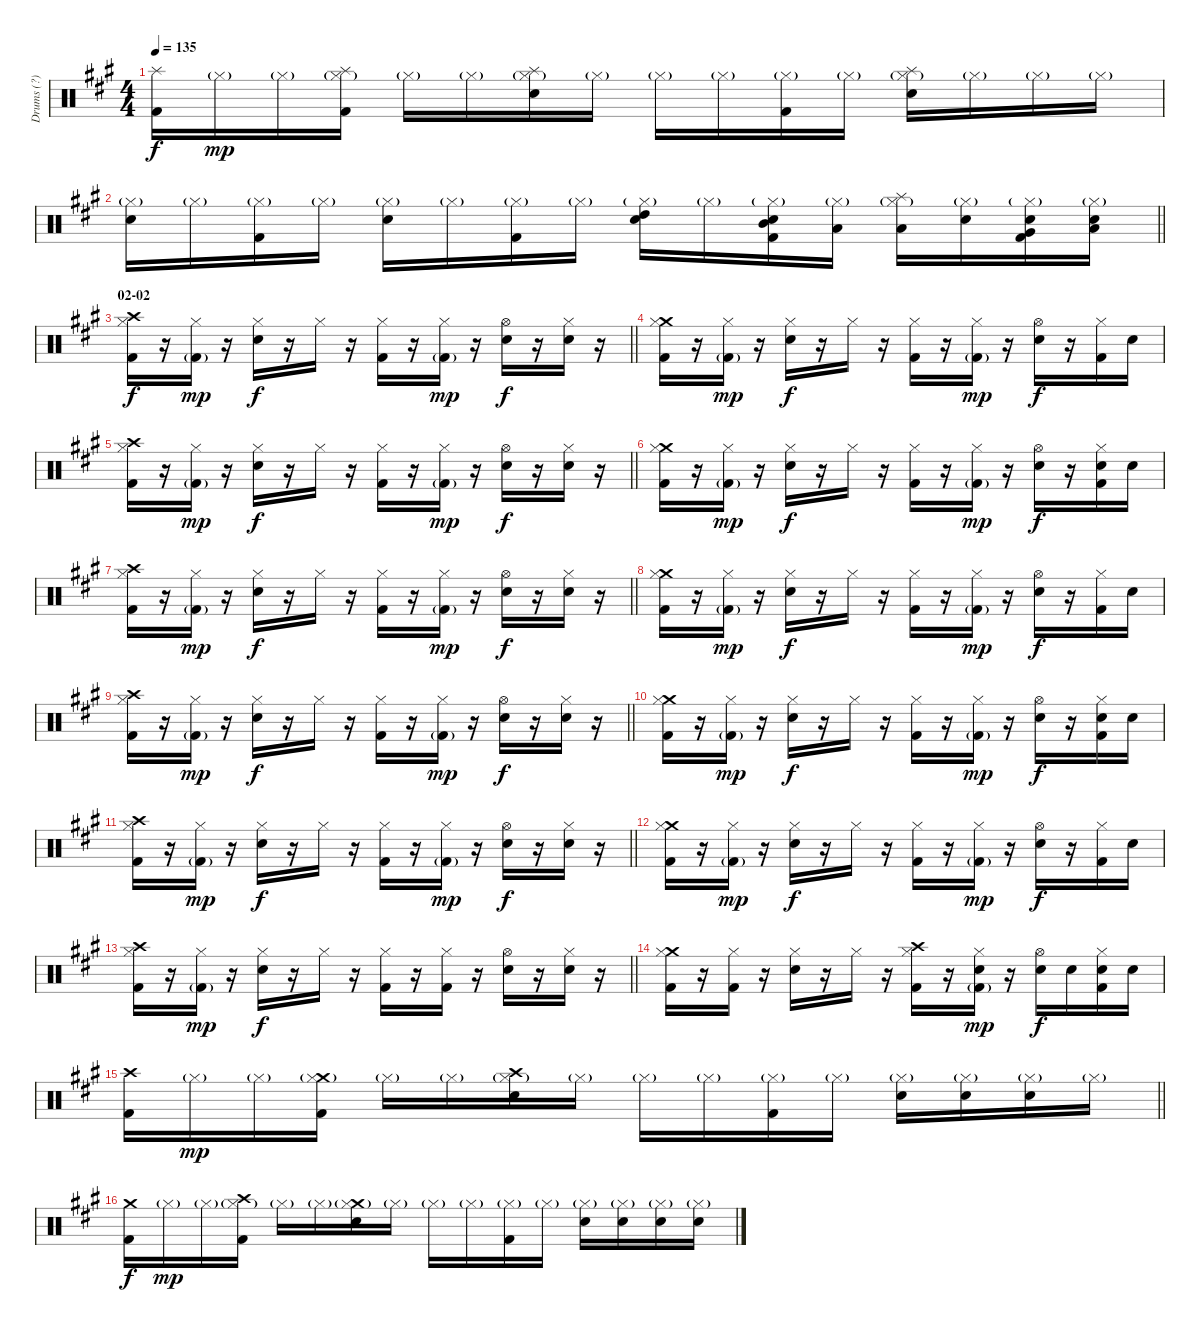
\track ("Drums (?)" "Drums (?)") {instrument percussion}
\staff {score}
\articulation defaults
\ts (4 4)
\tempo 135
\clef neutral
\ks a
("Splash (hit)" "Kick (hit) 2").16{dy f} "Hi-Hat (closed)"{g}.16{dy mp} "Hi-Hat (closed)"{g}.16 ("Splash (hit)" "Hi-Hat (closed)"{g} "Kick (hit) 2").16 "Hi-Hat (closed)"{g}.16 "Hi-Hat (closed)"{g}.16 ("Splash (hit)" "Hi-Hat (closed)"{g} "Electric Snare (hit)").16 "Hi-Hat (closed)"{g}.16 "Hi-Hat (closed)"{g}.16 "Hi-Hat (closed)"{g}.16 ("Hi-Hat (closed)"{g} "Kick (hit) 2").16 "Hi-Hat (closed)"{g}.16 ("Splash (hit)" "Hi-Hat (closed)"{g} "Electric Snare (hit)").16 "Hi-Hat (closed)"{g}.16 "Hi-Hat (closed)"{g}.16 "Hi-Hat (closed)"{g}.16 |
\barLineRight lightlight
("Hi-Hat (closed)"{g} "Electric Snare (hit)").16 "Hi-Hat (closed)"{g}.16 ("Hi-Hat (closed)"{g} "Kick (hit) 2").16 "Hi-Hat (closed)"{g}.16 ("Hi-Hat (closed)"{g} "Electric Snare (hit)").16 "Hi-Hat (closed)"{g}.16 ("Hi-Hat (closed)"{g} "Kick (hit) 2").16 "Hi-Hat (closed)"{g}.16 ("Hi-Hat (closed)"{g} "High Tom (hit)" "Electric Snare (hit)").16 "Hi-Hat (closed)"{g}.16 ("Hi-Hat (closed)"{g} "Mid Tom (hit)" "Electric Snare (hit)" "Kick (hit) 2").16 ("Hi-Hat (closed)"{g} "Low Tom (hit)").16 ("Splash (hit)" "Hi-Hat (closed)"{g} "Low Tom (hit)").16 ("Hi-Hat (closed)"{g} "Electric Snare (hit)").16 ("Hi-Hat (closed)"{g} "Very Low Tom (hit)" "Electric Snare (hit)" "Kick (hit) 2").16 ("Hi-Hat (closed)"{g} "Low Floor Tom (hit)" "Electric Snare (hit)").16 |
\section ("" "02-02")
\barLineRight lightlight
("Crash high (hit)" "Hi-Hat (closed)" "Kick (hit) 2").16{dy f} r.16 ("Hi-Hat (closed)" "Kick (hit) 2"{g}).16{dy mp} r.16 ("Hi-Hat (closed)" "Electric Snare (hit)").16{dy f} r.16 "Hi-Hat (closed)".16 r.16 ("Hi-Hat (closed)" "Kick (hit) 2").16 r.16 ("Hi-Hat (closed)" "Kick (hit) 2"{g}).16{dy mp} r.16 ("Hi-Hat (open)" "Electric Snare (hit)").16{dy f} r.16 ("Hi-Hat (closed)" "Hand Clap (hit)").16 r.16 |
("Crash medium (hit)" "Hi-Hat (closed)" "Kick (hit) 2").16 r.16 ("Hi-Hat (closed)" "Kick (hit) 2"{g}).16{dy mp} r.16 ("Hi-Hat (closed)" "Electric Snare (hit)").16{dy f} r.16 "Hi-Hat (closed)".16 r.16 ("Hi-Hat (closed)" "Kick (hit) 2").16 r.16 ("Hi-Hat (closed)" "Kick (hit) 2"{g}).16{dy mp} r.16 ("Hi-Hat (open)" "Electric Snare (hit)").16{dy f} r.16 ("Hi-Hat (closed)" "Kick (hit) 2").16 "Hand Clap (hit)".16 |
\barLineRight lightlight
("Crash high (hit)" "Hi-Hat (closed)" "Kick (hit) 2").16 r.16 ("Hi-Hat (closed)" "Kick (hit) 2"{g}).16{dy mp} r.16 ("Hi-Hat (closed)" "Electric Snare (hit)").16{dy f} r.16 "Hi-Hat (closed)".16 r.16 ("Hi-Hat (closed)" "Kick (hit) 2").16 r.16 ("Hi-Hat (closed)" "Kick (hit) 2"{g}).16{dy mp} r.16 ("Hi-Hat (open)" "Electric Snare (hit)").16{dy f} r.16 ("Hi-Hat (closed)" "Hand Clap (hit)").16 r.16 |
("Crash medium (hit)" "Hi-Hat (closed)" "Kick (hit) 2").16 r.16 ("Hi-Hat (closed)" "Kick (hit) 2"{g}).16{dy mp} r.16 ("Hi-Hat (closed)" "Electric Snare (hit)").16{dy f} r.16 "Hi-Hat (closed)".16 r.16 ("Hi-Hat (closed)" "Kick (hit) 2").16 r.16 ("Hi-Hat (closed)" "Kick (hit) 2"{g}).16{dy mp} r.16 ("Hi-Hat (open)" "Electric Snare (hit)").16{dy f} r.16 ("Hi-Hat (closed)" "Electric Snare (hit)" "Kick (hit) 2").16 "Electric Snare (hit)".16 |
\barLineRight lightlight
("Crash high (hit)" "Hi-Hat (closed)" "Kick (hit) 2").16 r.16 ("Hi-Hat (closed)" "Kick (hit) 2"{g}).16{dy mp} r.16 ("Hi-Hat (closed)" "Electric Snare (hit)").16{dy f} r.16 "Hi-Hat (closed)".16 r.16 ("Hi-Hat (closed)" "Kick (hit) 2").16 r.16 ("Hi-Hat (closed)" "Kick (hit) 2"{g}).16{dy mp} r.16 ("Hi-Hat (open)" "Electric Snare (hit)").16{dy f} r.16 ("Hi-Hat (closed)" "Hand Clap (hit)").16 r.16 |
("Crash medium (hit)" "Hi-Hat (closed)" "Kick (hit) 2").16 r.16 ("Hi-Hat (closed)" "Kick (hit) 2"{g}).16{dy mp} r.16 ("Hi-Hat (closed)" "Electric Snare (hit)").16{dy f} r.16 "Hi-Hat (closed)".16 r.16 ("Hi-Hat (closed)" "Kick (hit) 2").16 r.16 ("Hi-Hat (closed)" "Kick (hit) 2"{g}).16{dy mp} r.16 ("Hi-Hat (open)" "Electric Snare (hit)").16{dy f} r.16 ("Hi-Hat (closed)" "Kick (hit) 2").16 "Hand Clap (hit)".16 |
\barLineRight lightlight
("Crash high (hit)" "Hi-Hat (closed)" "Kick (hit) 2").16 r.16 ("Hi-Hat (closed)" "Kick (hit) 2"{g}).16{dy mp} r.16 ("Hi-Hat (closed)" "Electric Snare (hit)").16{dy f} r.16 "Hi-Hat (closed)".16 r.16 ("Hi-Hat (closed)" "Kick (hit) 2").16 r.16 ("Hi-Hat (closed)" "Kick (hit) 2"{g}).16{dy mp} r.16 ("Hi-Hat (open)" "Electric Snare (hit)").16{dy f} r.16 ("Hi-Hat (closed)" "Hand Clap (hit)").16 r.16 |
("Crash medium (hit)" "Hi-Hat (closed)" "Kick (hit) 2").16 r.16 ("Hi-Hat (closed)" "Kick (hit) 2"{g}).16{dy mp} r.16 ("Hi-Hat (closed)" "Electric Snare (hit)").16{dy f} r.16 "Hi-Hat (closed)".16 r.16 ("Hi-Hat (closed)" "Kick (hit) 2").16 r.16 ("Hi-Hat (closed)" "Kick (hit) 2"{g}).16{dy mp} r.16 ("Hi-Hat (open)" "Electric Snare (hit)").16{dy f} r.16 ("Hi-Hat (closed)" "Electric Snare (hit)" "Kick (hit) 2").16 "Electric Snare (hit)".16 |
\barLineRight lightlight
("Crash high (hit)" "Hi-Hat (closed)" "Kick (hit) 2").16 r.16 ("Hi-Hat (closed)" "Kick (hit) 2"{g}).16{dy mp} r.16 ("Hi-Hat (closed)" "Electric Snare (hit)").16{dy f} r.16 "Hi-Hat (closed)".16 r.16 ("Hi-Hat (closed)" "Kick (hit) 2").16 r.16 ("Hi-Hat (closed)" "Kick (hit) 2"{g}).16{dy mp} r.16 ("Hi-Hat (open)" "Electric Snare (hit)").16{dy f} r.16 ("Hi-Hat (closed)" "Hand Clap (hit)").16 r.16 |
("Crash medium (hit)" "Hi-Hat (closed)" "Kick (hit) 2").16 r.16 ("Hi-Hat (closed)" "Kick (hit) 2"{g}).16{dy mp} r.16 ("Hi-Hat (closed)" "Electric Snare (hit)").16{dy f} r.16 "Hi-Hat (closed)".16 r.16 ("Hi-Hat (closed)" "Kick (hit) 2").16 r.16 ("Hi-Hat (closed)" "Kick (hit) 2"{g}).16{dy mp} r.16 ("Hi-Hat (open)" "Electric Snare (hit)").16{dy f} r.16 ("Hi-Hat (closed)" "Kick (hit) 2").16 "Hand Clap (hit)".16 |
\barLineRight lightlight
("Crash high (hit)" "Hi-Hat (closed)" "Kick (hit) 2").16 r.16 ("Hi-Hat (closed)" "Kick (hit) 2"{g}).16{dy mp} r.16 ("Hi-Hat (closed)" "Electric Snare (hit)").16{dy f} r.16 "Hi-Hat (closed)".16 r.16 ("Hi-Hat (closed)" "Kick (hit) 2").16 r.16 ("Hi-Hat (closed)" "Kick (hit) 2").16 r.16 ("Hi-Hat (open)" "Electric Snare (hit)").16 r.16 ("Hi-Hat (closed)" "Hand Clap (hit)").16 r.16 |
("Crash medium (hit)" "Hi-Hat (closed)" "Kick (hit) 2").16 r.16 ("Hi-Hat (closed)" "Kick (hit) 2").16 r.16 ("Hi-Hat (closed)" "Electric Snare (hit)").16 r.16 "Hi-Hat (closed)".16 r.16 ("Crash high (hit)" "Hi-Hat (closed)" "Kick (hit) 2").16 r.16 ("Hi-Hat (closed)" "Electric Snare (hit)" "Kick (hit) 2"{g}).16{dy mp} r.16 ("Hi-Hat (open)" "Electric Snare (hit)").16{dy f} "Electric Snare (hit)".16 ("Hi-Hat (closed)" "Electric Snare (hit)" "Kick (hit) 2").16 "Electric Snare (hit)".16 |
\barLineRight lightlight
("Crash high (hit)" "Kick (hit) 2").16 "Hi-Hat (closed)"{g}.16{dy mp} "Hi-Hat (closed)"{g}.16 ("Crash medium (hit)" "Hi-Hat (closed)"{g} "Kick (hit) 2").16 "Hi-Hat (closed)"{g}.16 "Hi-Hat (closed)"{g}.16 ("Crash high (hit)" "Hi-Hat (closed)"{g} "Electric Snare (hit)").16 "Hi-Hat (closed)"{g}.16 "Hi-Hat (closed)"{g}.16 "Hi-Hat (closed)"{g}.16 ("Hi-Hat (closed)"{g} "Kick (hit) 2").16 "Hi-Hat (closed)"{g}.16 ("Hi-Hat (closed)"{g} "Electric Snare (hit)").16 ("Hi-Hat (closed)"{g} "Electric Snare (hit)").16 ("Hi-Hat (closed)"{g} "Electric Snare (hit)").16 "Hi-Hat (closed)"{g}.16 |
("Crash medium (hit)" "Kick (hit) 2").16{dy f} "Hi-Hat (closed)"{g}.16{dy mp} "Hi-Hat (closed)"{g}.16 ("Crash high (hit)" "Hi-Hat (closed)"{g} "Kick (hit) 2").16 "Hi-Hat (closed)"{g}.16 "Hi-Hat (closed)"{g}.16 ("Crash medium (hit)" "Hi-Hat (closed)"{g} "Electric Snare (hit)").16 "Hi-Hat (closed)"{g}.16 "Hi-Hat (closed)"{g}.16 "Hi-Hat (closed)"{g}.16 ("Hi-Hat (closed)"{g} "Kick (hit) 2").16 "Hi-Hat (closed)"{g}.16 ("Hi-Hat (closed)"{g} "Electric Snare (hit)").16 ("Hi-Hat (closed)"{g} "Electric Snare (hit)").16 ("Hi-Hat (closed)"{g} "Electric Snare (hit)").16 ("Hi-Hat (closed)"{g} "Electric Snare (hit)").16
